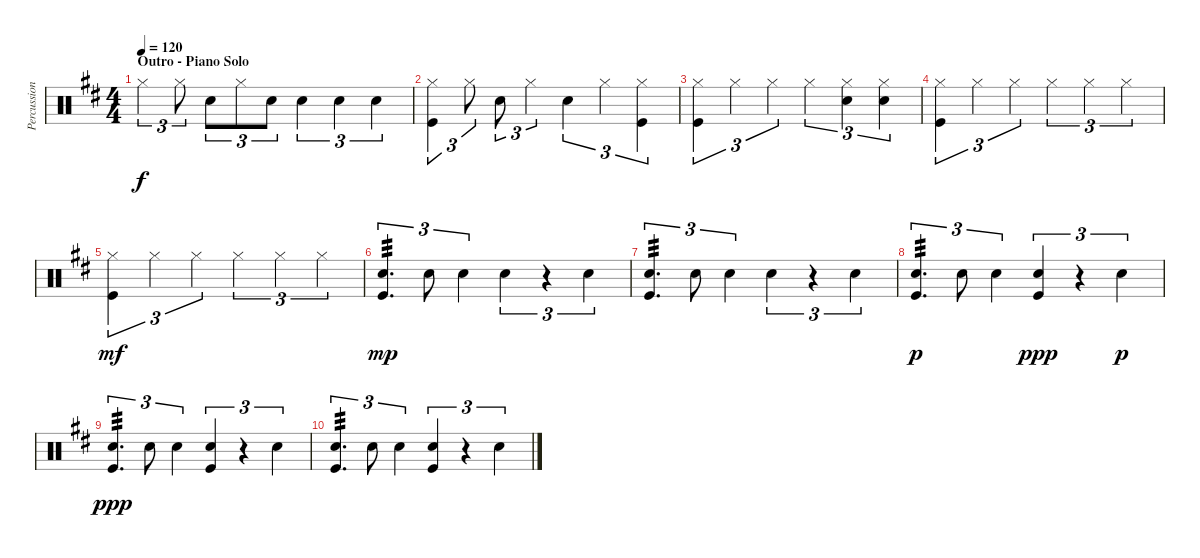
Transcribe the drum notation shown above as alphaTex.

\track ("Percussion" "Percussion") {instrument percussion}
\staff {score}
\articulation defaults
\ts (4 4)
\section ("" "Outro - Piano Solo")
\tempo 120
\clef neutral
\ks d "Hi-Hat (closed)".4{tu (3 2) dy f} "Hi-Hat (closed)".8{tu (3 2)} "Snare (hit) 2".8{tu (3 2)} "Hi-Hat (closed)".8{tu (3 2)} "Snare (hit) 2".8{tu (3 2)} "Snare (hit) 2".4{tu (3 2)} "Snare (hit) 2".4{tu (3 2)} "Snare (hit) 2".4{tu (3 2)}
|
("Kick (hit)" "Hi-Hat (closed)").4{tu (3 2)} "Hi-Hat (closed)".8{tu (3 2)} "Snare (hit) 2".8{tu (3 2)} "Hi-Hat (closed)".4{tu (3 2)} "Snare (hit) 2".4{tu (3 2)} "Hi-Hat (closed)".4{tu (3 2)} ("Hi-Hat (closed)" "Kick (hit)").4{tu (3 2)} |
("Hi-Hat (closed)" "Kick (hit)").4{tu (3 2)} "Hi-Hat (closed)".4{tu (3 2)} "Hi-Hat (closed)".4{tu (3 2)} "Hi-Hat (closed)".4{tu (3 2)} ("Hi-Hat (closed)" "Snare (hit) 2").4{tu (3 2)} ("Hi-Hat (closed)" "Snare (hit) 2").4{tu (3 2)} |
("Hi-Hat (closed)" "Kick (hit)").4{tu (3 2)} "Hi-Hat (closed)".4{tu (3 2)} "Hi-Hat (closed)".4{tu (3 2)} "Hi-Hat (closed)".4{tu (3 2)} "Hi-Hat (closed)".4{tu (3 2)} "Hi-Hat (closed)".4{tu (3 2)} |
("Hi-Hat (closed)" "Kick (hit)").4{tu (3 2) dy mf} "Hi-Hat (closed)".4{tu (3 2)} "Hi-Hat (closed)".4{tu (3 2)} "Hi-Hat (closed)".4{tu (3 2)} "Hi-Hat (closed)".4{tu (3 2)} "Hi-Hat (closed)".4{tu (3 2)} |
("Snare (hit) 2" "Kick (hit)").4{d tu (3 2) tp 3 dy mp} "Snare (hit) 2".8{tu (3 2)} "Snare (hit) 2".4{tu (3 2)} "Snare (hit) 2".4{tu (3 2)} r.4{tu (3 2)} "Snare (hit) 2".4{tu (3 2)} |
("Snare (hit) 2" "Kick (hit)").4{d tu (3 2) tp 3} "Snare (hit) 2".8{tu (3 2)} "Snare (hit) 2".4{tu (3 2)} "Snare (hit) 2".4{tu (3 2)} r.4{tu (3 2)} "Snare (hit) 2".4{tu (3 2)} |
("Snare (hit) 2" "Kick (hit)").4{d tu (3 2) tp 3 dy p} "Snare (hit) 2".8{tu (3 2)} "Snare (hit) 2".4{tu (3 2)} ("Snare (hit) 2" "Kick (hit)").4{tu (3 2) dy ppp} r.4{tu (3 2)} "Snare (hit) 2".4{tu (3 2) dy p} |
("Snare (hit) 2" "Kick (hit)").4{d tu (3 2) tp 3 dy ppp} "Snare (hit) 2".8{tu (3 2)} "Snare (hit) 2".4{tu (3 2)} ("Snare (hit) 2" "Kick (hit)").4{tu (3 2)} r.4{tu (3 2)} "Snare (hit) 2".4{tu (3 2)} |
("Snare (hit) 2" "Kick (hit)").4{d tu (3 2) tp 3} "Snare (hit) 2".8{tu (3 2)} "Snare (hit) 2".4{tu (3 2)} ("Snare (hit) 2" "Kick (hit)").4{tu (3 2)} r.4{tu (3 2)} "Snare (hit) 2".4{tu (3 2)}
